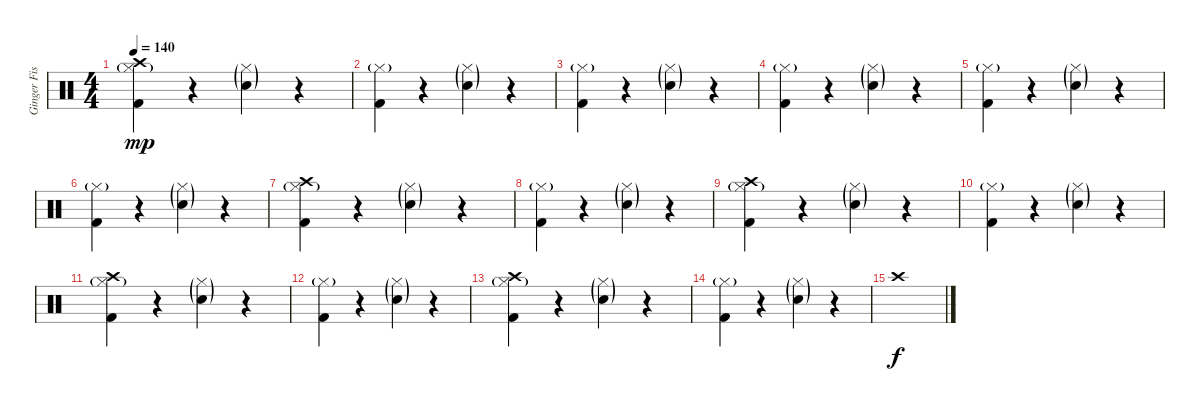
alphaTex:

\track ("Ginger Fish" "Ginger Fis") {instrument percussion}
\staff {score}
\articulation defaults
\ts (4 4)
\tempo 140
\clef neutral
\ks c
("Hi-Hat (closed)"{g} "Crash high (hit)" "Kick (hit) 2").4{dy mp} r.4 ("Hi-Hat (closed)"{g} "Electric Snare (hit)"{g}).4 r.4 |
("Hi-Hat (closed)"{g} "Kick (hit) 2").4 r.4 ("Hi-Hat (closed)"{g} "Electric Snare (hit)"{g}).4 r.4 |
("Hi-Hat (closed)"{g} "Kick (hit) 2").4 r.4 ("Hi-Hat (closed)"{g} "Electric Snare (hit)"{g}).4 r.4 |
("Hi-Hat (closed)"{g} "Kick (hit) 2").4 r.4 ("Hi-Hat (closed)"{g} "Electric Snare (hit)"{g}).4 r.4 |
("Hi-Hat (closed)"{g} "Kick (hit) 2").4 r.4 ("Hi-Hat (closed)"{g} "Electric Snare (hit)"{g}).4 r.4 |
("Hi-Hat (closed)"{g} "Kick (hit) 2").4 r.4 ("Hi-Hat (closed)"{g} "Electric Snare (hit)"{g}).4 r.4 |
("Hi-Hat (closed)"{g} "Crash high (hit)" "Kick (hit) 2").4 r.4 ("Hi-Hat (closed)"{g} "Electric Snare (hit)"{g}).4 r.4 |
("Hi-Hat (closed)"{g} "Kick (hit) 2").4 r.4 ("Hi-Hat (closed)"{g} "Electric Snare (hit)"{g}).4 r.4 |
("Hi-Hat (closed)"{g} "Crash high (hit)" "Kick (hit) 2").4 r.4 ("Hi-Hat (closed)"{g} "Electric Snare (hit)"{g}).4 r.4 |
("Hi-Hat (closed)"{g} "Kick (hit) 2").4 r.4 ("Hi-Hat (closed)"{g} "Electric Snare (hit)"{g}).4 r.4 |
("Hi-Hat (closed)"{g} "Crash high (hit)" "Kick (hit) 2").4 r.4 ("Hi-Hat (closed)"{g} "Electric Snare (hit)"{g}).4 r.4 |
("Hi-Hat (closed)"{g} "Kick (hit) 2").4 r.4 ("Hi-Hat (closed)"{g} "Electric Snare (hit)"{g}).4 r.4 |
("Hi-Hat (closed)"{g} "Crash high (hit)" "Kick (hit) 2").4 r.4 ("Hi-Hat (closed)"{g} "Electric Snare (hit)"{g}).4 r.4 |
("Hi-Hat (closed)"{g} "Kick (hit) 2").4 r.4 ("Hi-Hat (closed)"{g} "Electric Snare (hit)"{g}).4 r.4 |
"Crash high (hit)".1{dy f}
